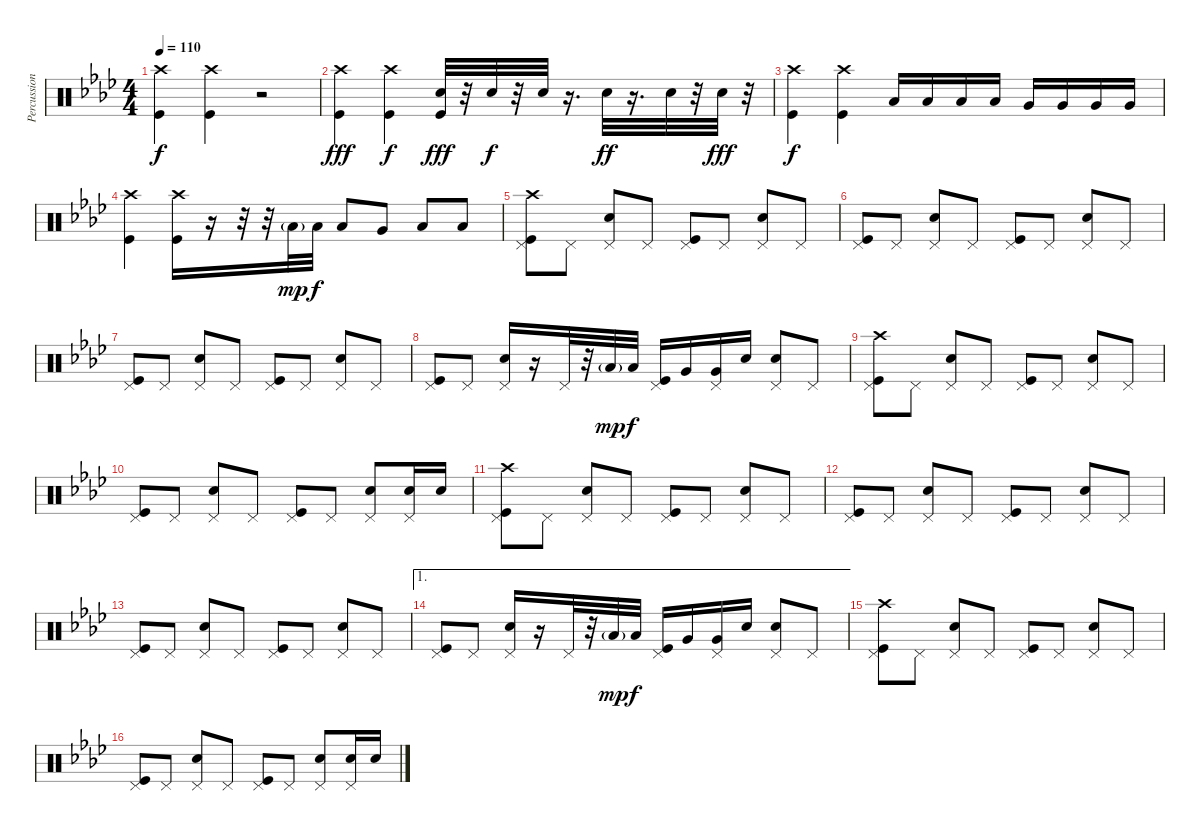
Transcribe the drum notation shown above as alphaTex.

\track ("Percussions" "Percussion") {instrument percussion}
\staff {score}
\articulation defaults
\ts (4 4)
\tempo 110
\clef neutral
\ks ab
("Crash high (hit)" "Kick (hit)").4{dy f} ("Crash high (hit)" "Kick (hit)").4 r.2 |
("Crash high (hit)" "Kick (hit)").4{dy fff} ("Crash high (hit)" "Kick (hit)").4{dy f} ("Electric Snare (hit)" "Kick (hit)").32{dy fff} r.32 "Electric Snare (hit)".32{dy f} r.32 "Electric Snare (hit)".32 r.16{d} "Electric Snare (hit)".32{dy ff} r.16{d} "Electric Snare (hit)".32 r.32 "Electric Snare (hit)".32{dy fff} r.32 |
("Crash high (hit)" "Kick (hit)").4{dy f} ("Crash high (hit)" "Kick (hit)").4 "Low Tom (hit)".16 "Low Tom (hit)".16 "Low Tom (hit)".16 "Low Tom (hit)".16 "Very Low Tom (hit)".16 "Very Low Tom (hit)".16 "Very Low Tom (hit)".16 "Very Low Tom (hit)".16 |
("Crash high (hit)" "Kick (hit)").4 ("Crash high (hit)" "Kick (hit)").16 r.16 r.32 r.32 "Low Tom (hit)"{g}.32{dy mp} "Low Tom (hit)".32{dy f} "Low Tom (hit)".8 "Very Low Tom (hit)".8 "Low Floor Tom (hit)".8 "Low Floor Tom (hit)".8 |
("Pedal Hi-Hat (hit)" "Crash high (hit)" "Kick (hit)").8 "Pedal Hi-Hat (hit)".8 ("Pedal Hi-Hat (hit)" "Electric Snare (hit)").8 "Pedal Hi-Hat (hit)".8 ("Pedal Hi-Hat (hit)" "Kick (hit)").8 "Pedal Hi-Hat (hit)".8 ("Pedal Hi-Hat (hit)" "Electric Snare (hit)").8 "Pedal Hi-Hat (hit)".8 |
("Pedal Hi-Hat (hit)" "Kick (hit)").8 "Pedal Hi-Hat (hit)".8 ("Pedal Hi-Hat (hit)" "Electric Snare (hit)").8 "Pedal Hi-Hat (hit)".8 ("Pedal Hi-Hat (hit)" "Kick (hit)").8 "Pedal Hi-Hat (hit)".8 ("Pedal Hi-Hat (hit)" "Electric Snare (hit)").8 "Pedal Hi-Hat (hit)".8 |
("Pedal Hi-Hat (hit)" "Kick (hit)").8 "Pedal Hi-Hat (hit)".8 ("Pedal Hi-Hat (hit)" "Electric Snare (hit)").8 "Pedal Hi-Hat (hit)".8 ("Pedal Hi-Hat (hit)" "Kick (hit)").8 "Pedal Hi-Hat (hit)".8 ("Pedal Hi-Hat (hit)" "Electric Snare (hit)").8 "Pedal Hi-Hat (hit)".8 |
("Pedal Hi-Hat (hit)" "Kick (hit)").8 "Pedal Hi-Hat (hit)".8 ("Pedal Hi-Hat (hit)" "Electric Snare (hit)").16 r.16 "Pedal Hi-Hat (hit)".32 r.32 "Low Tom (hit)"{g}.32{dy mp} "Low Tom (hit)".32{dy f} ("Pedal Hi-Hat (hit)" "Kick (hit)").16 "Very Low Tom (hit)".16 ("Very Low Tom (hit)" "Pedal Hi-Hat (hit)").16 "Electric Snare (hit)".16 ("Electric Snare (hit)" "Pedal Hi-Hat (hit)").8 "Pedal Hi-Hat (hit)".8 |
("Pedal Hi-Hat (hit)" "Crash high (hit)" "Kick (hit)").8 "Pedal Hi-Hat (hit)".8 ("Pedal Hi-Hat (hit)" "Electric Snare (hit)").8 "Pedal Hi-Hat (hit)".8 ("Pedal Hi-Hat (hit)" "Kick (hit)").8 "Pedal Hi-Hat (hit)".8 ("Pedal Hi-Hat (hit)" "Electric Snare (hit)").8 "Pedal Hi-Hat (hit)".8 |
("Pedal Hi-Hat (hit)" "Kick (hit)").8 "Pedal Hi-Hat (hit)".8 ("Pedal Hi-Hat (hit)" "Electric Snare (hit)").8 "Pedal Hi-Hat (hit)".8 ("Pedal Hi-Hat (hit)" "Kick (hit)").8 "Pedal Hi-Hat (hit)".8 ("Pedal Hi-Hat (hit)" "Electric Snare (hit)").8 ("Pedal Hi-Hat (hit)" "Electric Snare (hit)").16 "Electric Snare (hit)".16 |
("Pedal Hi-Hat (hit)" "Crash high (hit)" "Kick (hit)").8 "Pedal Hi-Hat (hit)".8 ("Pedal Hi-Hat (hit)" "Electric Snare (hit)").8 "Pedal Hi-Hat (hit)".8 ("Pedal Hi-Hat (hit)" "Kick (hit)").8 "Pedal Hi-Hat (hit)".8 ("Pedal Hi-Hat (hit)" "Electric Snare (hit)").8 "Pedal Hi-Hat (hit)".8 |
("Pedal Hi-Hat (hit)" "Kick (hit)").8 "Pedal Hi-Hat (hit)".8 ("Pedal Hi-Hat (hit)" "Electric Snare (hit)").8 "Pedal Hi-Hat (hit)".8 ("Pedal Hi-Hat (hit)" "Kick (hit)").8 "Pedal Hi-Hat (hit)".8 ("Pedal Hi-Hat (hit)" "Electric Snare (hit)").8 "Pedal Hi-Hat (hit)".8 |
("Pedal Hi-Hat (hit)" "Kick (hit)").8 "Pedal Hi-Hat (hit)".8 ("Pedal Hi-Hat (hit)" "Electric Snare (hit)").8 "Pedal Hi-Hat (hit)".8 ("Pedal Hi-Hat (hit)" "Kick (hit)").8 "Pedal Hi-Hat (hit)".8 ("Pedal Hi-Hat (hit)" "Electric Snare (hit)").8 "Pedal Hi-Hat (hit)".8 |
\ae 1
("Pedal Hi-Hat (hit)" "Kick (hit)").8 "Pedal Hi-Hat (hit)".8 ("Pedal Hi-Hat (hit)" "Electric Snare (hit)").16 r.16 "Pedal Hi-Hat (hit)".32 r.32 "Low Tom (hit)"{g}.32{dy mp} "Low Tom (hit)".32{dy f} ("Pedal Hi-Hat (hit)" "Kick (hit)").16 "Very Low Tom (hit)".16 ("Very Low Tom (hit)" "Pedal Hi-Hat (hit)").16 "Electric Snare (hit)".16 ("Electric Snare (hit)" "Pedal Hi-Hat (hit)").8 "Pedal Hi-Hat (hit)".8 |
("Pedal Hi-Hat (hit)" "Crash high (hit)" "Kick (hit)").8 "Pedal Hi-Hat (hit)".8 ("Pedal Hi-Hat (hit)" "Electric Snare (hit)").8 "Pedal Hi-Hat (hit)".8 ("Pedal Hi-Hat (hit)" "Kick (hit)").8 "Pedal Hi-Hat (hit)".8 ("Pedal Hi-Hat (hit)" "Electric Snare (hit)").8 "Pedal Hi-Hat (hit)".8 |
("Pedal Hi-Hat (hit)" "Kick (hit)").8 "Pedal Hi-Hat (hit)".8 ("Pedal Hi-Hat (hit)" "Electric Snare (hit)").8 "Pedal Hi-Hat (hit)".8 ("Pedal Hi-Hat (hit)" "Kick (hit)").8 "Pedal Hi-Hat (hit)".8 ("Pedal Hi-Hat (hit)" "Electric Snare (hit)").8 ("Pedal Hi-Hat (hit)" "Electric Snare (hit)").16 "Electric Snare (hit)".16
